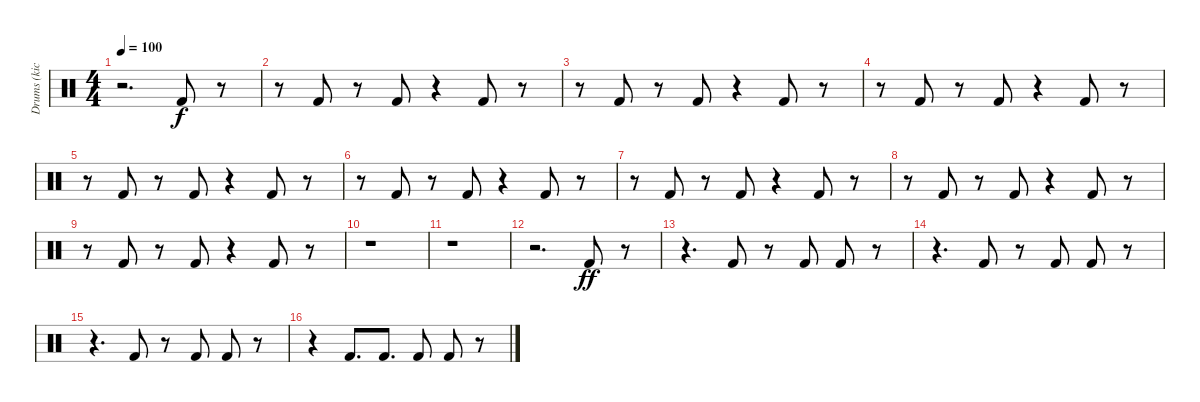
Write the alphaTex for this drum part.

\track ("Drums (kick)" "Drums (kic") {instrument percussion}
\staff {score}
\articulation defaults
\ts (4 4)
\tempo 100
\clef neutral
\ks c
r.2{d dy f} "Kick (hit) 2".8 r.8 |
r.8 "Kick (hit) 2".8 r.8 "Kick (hit) 2".8 r.4 "Kick (hit) 2".8 r.8 |
r.8 "Kick (hit) 2".8 r.8 "Kick (hit) 2".8 r.4 "Kick (hit) 2".8 r.8 |
r.8 "Kick (hit) 2".8 r.8 "Kick (hit) 2".8 r.4 "Kick (hit) 2".8 r.8 |
r.8 "Kick (hit) 2".8 r.8 "Kick (hit) 2".8 r.4 "Kick (hit) 2".8 r.8 |
r.8 "Kick (hit) 2".8 r.8 "Kick (hit) 2".8 r.4 "Kick (hit) 2".8 r.8 |
r.8 "Kick (hit) 2".8 r.8 "Kick (hit) 2".8 r.4 "Kick (hit) 2".8 r.8 |
r.8 "Kick (hit) 2".8 r.8 "Kick (hit) 2".8 r.4 "Kick (hit) 2".8 r.8 |
r.8 "Kick (hit) 2".8 r.8 "Kick (hit) 2".8 r.4 "Kick (hit) 2".8 r.8 |
r.1 |
r.1 |
r.2{d} "Kick (hit) 2".8{dy ff} r.8 |
r.4{d} "Kick (hit) 2".8 r.8 "Kick (hit) 2".8 "Kick (hit) 2".8 r.8 |
r.4{d} "Kick (hit) 2".8 r.8 "Kick (hit) 2".8 "Kick (hit) 2".8 r.8 |
r.4{d} "Kick (hit) 2".8 r.8 "Kick (hit) 2".8 "Kick (hit) 2".8 r.8 |
r.4 "Kick (hit) 2".8{d} "Kick (hit) 2".8{d} "Kick (hit) 2".8 "Kick (hit) 2".8 r.8
